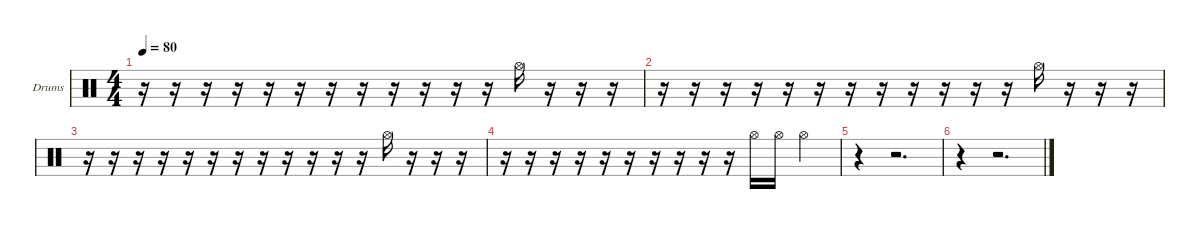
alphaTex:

\hideDynamics
\bracketExtendMode nobrackets
\firstSystemTrackNameOrientation horizontal
\otherSystemsTrackNameOrientation horizontal
\track ("Drumkit" "Drums") {instrument percussion}
\staff {score}
\articulation defaults
\ts (4 4)
\tempo 80
\clef neutral
\ks c
r.16{dy f} r.16 r.16 r.16 r.16 r.16 r.16 r.16 r.16 r.16 r.16 r.16 "Hi-Hat (open)".16 r.16 r.16 r.16 |
r.16 r.16 r.16 r.16 r.16 r.16 r.16 r.16 r.16 r.16 r.16 r.16 "Hi-Hat (open)".16 r.16 r.16 r.16 |
r.16 r.16 r.16 r.16 r.16 r.16 r.16 r.16 r.16 r.16 r.16 r.16 "Hi-Hat (open)".16 r.16 r.16 r.16 |
r.16 r.16 r.16 r.16 r.16 r.16 r.16 r.16 r.16 r.16 "Hi-Hat (open)".16 "Hi-Hat (open)".16 "Hi-Hat (open)".4 |
r.4 r.2{d} |
r.4 r.2{d}
